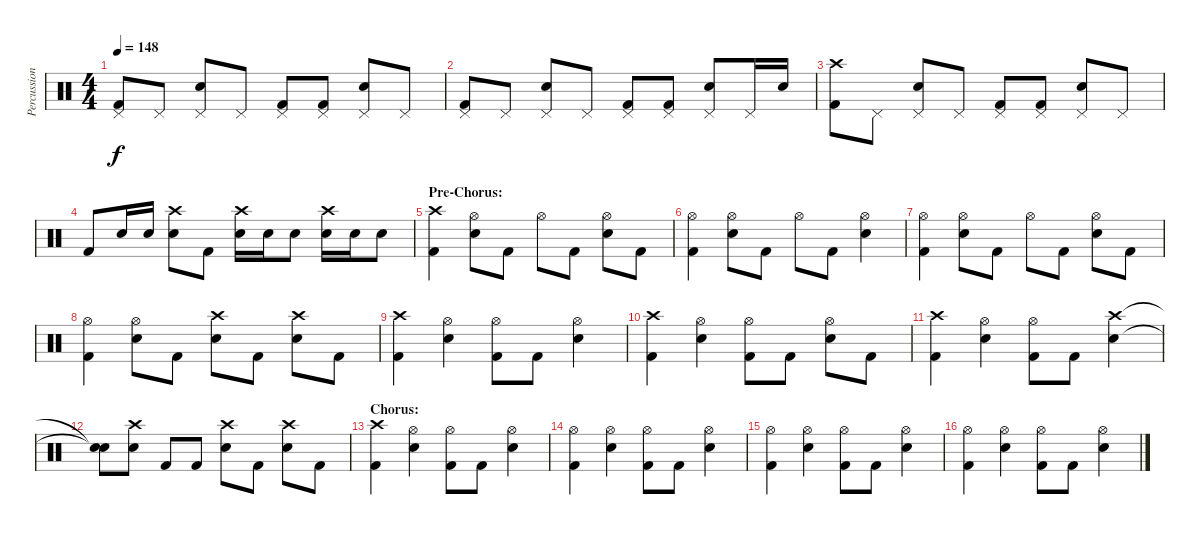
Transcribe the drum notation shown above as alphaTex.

\track ("Percussion" "Percussion") {instrument percussion}
\staff {score}
\articulation defaults
\ts (4 4)
\tempo 148
\clef neutral
\ks c
("Pedal Hi-Hat (hit)" "Kick (hit) 2").8{dy f} "Pedal Hi-Hat (hit)".8 ("Pedal Hi-Hat (hit)" "Electric Snare (hit)").8 "Pedal Hi-Hat (hit)".8 ("Pedal Hi-Hat (hit)" "Kick (hit) 2").8 ("Pedal Hi-Hat (hit)" "Kick (hit) 2").8 ("Pedal Hi-Hat (hit)" "Electric Snare (hit)").8 "Pedal Hi-Hat (hit)".8 |
("Pedal Hi-Hat (hit)" "Kick (hit) 2").8 "Pedal Hi-Hat (hit)".8 ("Pedal Hi-Hat (hit)" "Electric Snare (hit)").8 "Pedal Hi-Hat (hit)".8 ("Pedal Hi-Hat (hit)" "Kick (hit) 2").8 ("Pedal Hi-Hat (hit)" "Kick (hit) 2").8 ("Pedal Hi-Hat (hit)" "Electric Snare (hit)").8 "Pedal Hi-Hat (hit)".16 "Electric Snare (hit)".16 |
("Crash high (hit)" "Kick (hit) 2").8 "Pedal Hi-Hat (hit)".8 ("Pedal Hi-Hat (hit)" "Electric Snare (hit)").8 "Pedal Hi-Hat (hit)".8 ("Pedal Hi-Hat (hit)" "Kick (hit) 2").8 ("Pedal Hi-Hat (hit)" "Kick (hit) 2").8 ("Pedal Hi-Hat (hit)" "Electric Snare (hit)").8 "Pedal Hi-Hat (hit)".8 |
"Kick (hit) 2".8 "Electric Snare (hit)".16 "Electric Snare (hit)".16 ("Crash high (hit)" "Electric Snare (hit)").8 "Kick (hit) 2".8 ("Crash high (hit)" "Electric Snare (hit)").16 "Electric Snare (hit)".16 "Electric Snare (hit)".8 ("Crash high (hit)" "Electric Snare (hit)").16 "Electric Snare (hit)".16 "Electric Snare (hit)".8 |
\section ("" "Pre-Chorus:")
("Crash high (hit)" "Kick (hit) 2").4 ("Hi-Hat (open)" "Electric Snare (hit)").8 "Kick (hit) 2".8 "Hi-Hat (open)".8 "Kick (hit) 2".8 ("Hi-Hat (open)" "Electric Snare (hit)").8 "Kick (hit) 2".8 |
("Hi-Hat (open)" "Kick (hit) 2").4 ("Hi-Hat (open)" "Electric Snare (hit)").8 "Kick (hit) 2".8 "Hi-Hat (open)".8 "Kick (hit) 2".8 ("Hi-Hat (open)" "Electric Snare (hit)").4 |
("Hi-Hat (open)" "Kick (hit) 2").4 ("Hi-Hat (open)" "Electric Snare (hit)").8 "Kick (hit) 2".8 "Hi-Hat (open)".8 "Kick (hit) 2".8 ("Hi-Hat (open)" "Electric Snare (hit)").8 "Kick (hit) 2".8 |
("Hi-Hat (open)" "Kick (hit) 2").4 ("Hi-Hat (open)" "Electric Snare (hit)").8 "Kick (hit) 2".8 ("Crash high (hit)" "Electric Snare (hit)").8 "Kick (hit) 2".8 ("Crash high (hit)" "Electric Snare (hit)").8 "Kick (hit) 2".8 |
("Crash high (hit)" "Kick (hit) 2").4 ("Hi-Hat (open)" "Electric Snare (hit)").4 ("Hi-Hat (open)" "Kick (hit) 2").8 "Kick (hit) 2".8 ("Hi-Hat (open)" "Electric Snare (hit)").4 |
("Crash high (hit)" "Kick (hit) 2").4 ("Hi-Hat (open)" "Electric Snare (hit)").4 ("Hi-Hat (open)" "Kick (hit) 2").8 "Kick (hit) 2".8 ("Hi-Hat (open)" "Electric Snare (hit)").8 "Kick (hit) 2".8 |
("Crash high (hit)" "Kick (hit) 2").4 ("Hi-Hat (open)" "Electric Snare (hit)").4 ("Hi-Hat (open)" "Kick (hit) 2").8 "Kick (hit) 2".8 ("Crash high (hit)" "Electric Snare (hit)").4 |
("Snare (hit)"{t} "Snare (hit)"{t}).8 ("Crash high (hit)" "Electric Snare (hit)").8 "Kick (hit) 2".8 "Kick (hit) 2".8 ("Crash high (hit)" "Electric Snare (hit)").8 "Kick (hit) 2".8 ("Crash high (hit)" "Electric Snare (hit)").8 "Kick (hit) 2".8 |
\section ("" "Chorus:")
("Crash high (hit)" "Kick (hit) 2").4 ("Hi-Hat (open)" "Electric Snare (hit)").4 ("Hi-Hat (open)" "Kick (hit) 2").8 "Kick (hit) 2".8 ("Hi-Hat (open)" "Electric Snare (hit)").4 |
("Hi-Hat (open)" "Kick (hit) 2").4 ("Hi-Hat (open)" "Electric Snare (hit)").4 ("Hi-Hat (open)" "Kick (hit) 2").8 "Kick (hit) 2".8 ("Hi-Hat (open)" "Electric Snare (hit)").4 |
("Hi-Hat (open)" "Kick (hit) 2").4 ("Hi-Hat (open)" "Electric Snare (hit)").4 ("Hi-Hat (open)" "Kick (hit) 2").8 "Kick (hit) 2".8 ("Hi-Hat (open)" "Electric Snare (hit)").4 |
("Hi-Hat (open)" "Kick (hit) 2").4 ("Hi-Hat (open)" "Electric Snare (hit)").4 ("Hi-Hat (open)" "Kick (hit) 2").8 "Kick (hit) 2".8 ("Hi-Hat (open)" "Electric Snare (hit)").4
